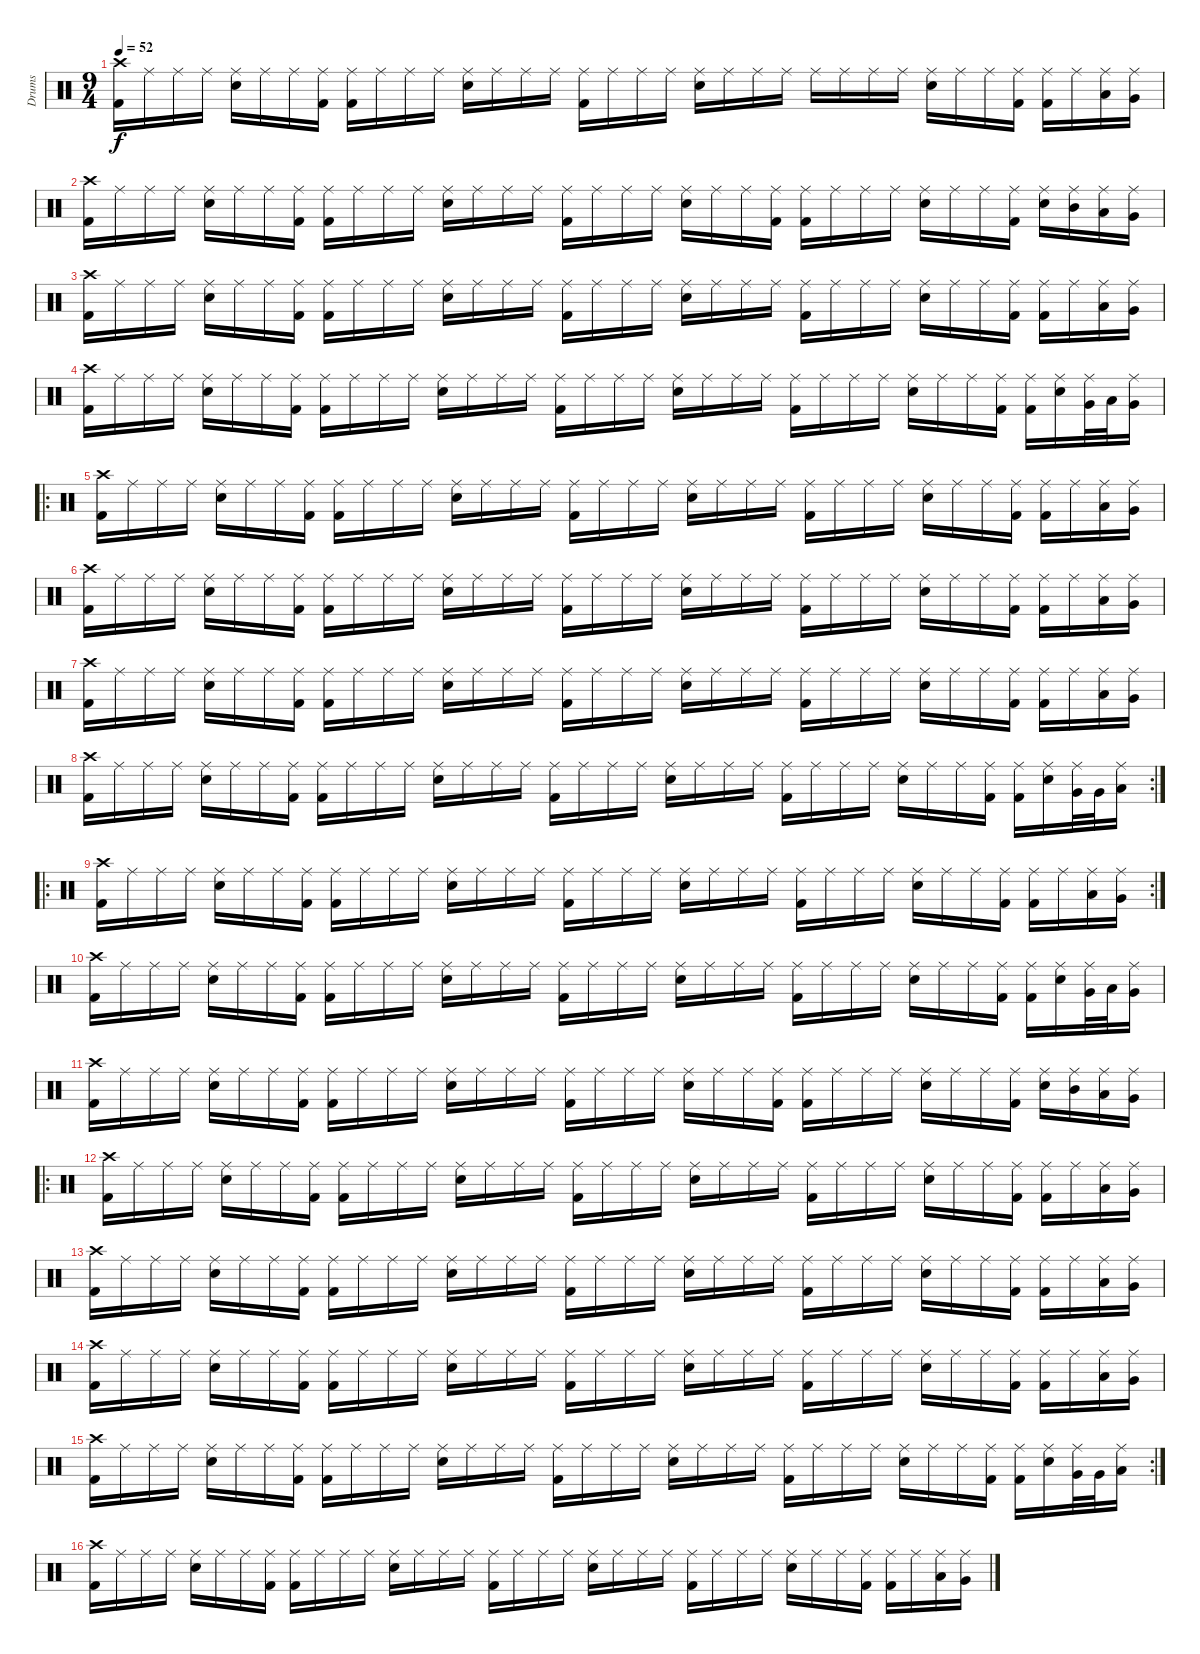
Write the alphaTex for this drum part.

\track ("Drums" "Drums") {instrument percussion}
\staff {score}
\articulation defaults
\ts (9 4)
\tempo 52
\clef neutral
\ks c
("Crash high (hit)" "Kick (hit) 2").16{dy f} "Ride (middle)".16 "Ride (middle)".16 "Ride (middle)".16 ("Ride (middle)" "Snare (hit) 2").16 "Ride (middle)".16 "Ride (middle)".16 ("Ride (middle)" "Kick (hit) 2").16 ("Ride (middle)" "Kick (hit) 2").16 "Ride (middle)".16 "Ride (middle)".16 "Ride (middle)".16 ("Ride (middle)" "Snare (hit) 2").16 "Ride (middle)".16 "Ride (middle)".16 "Ride (middle)".16 ("Ride (middle)" "Kick (hit) 2").16 "Ride (middle)".16 "Ride (middle)".16 "Ride (middle)".16 ("Ride (middle)" "Snare (hit) 2").16 "Ride (middle)".16 "Ride (middle)".16 "Ride (middle)".16 "Ride (middle)".16 "Ride (middle)".16 "Ride (middle)".16 "Ride (middle)".16 ("Ride (middle)" "Snare (hit) 2").16 "Ride (middle)".16 "Ride (middle)".16 ("Ride (middle)" "Kick (hit) 2").16 ("Ride (middle)" "Kick (hit) 2").16 "Ride (middle)".16 ("Ride (middle)" "Low Floor Tom (hit)").16 ("Ride (middle)" "Very Low Tom (hit)").16 |
("Crash high (hit)" "Kick (hit) 2").16 "Ride (middle)".16 "Ride (middle)".16 "Ride (middle)".16 ("Ride (middle)" "Snare (hit) 2").16 "Ride (middle)".16 "Ride (middle)".16 ("Ride (middle)" "Kick (hit) 2").16 ("Ride (middle)" "Kick (hit) 2").16 "Ride (middle)".16 "Ride (middle)".16 "Ride (middle)".16 ("Ride (middle)" "Snare (hit) 2").16 "Ride (middle)".16 "Ride (middle)".16 "Ride (middle)".16 ("Ride (middle)" "Kick (hit) 2").16 "Ride (middle)".16 "Ride (middle)".16 "Ride (middle)".16 ("Ride (middle)" "Snare (hit) 2").16 "Ride (middle)".16 "Ride (middle)".16 ("Ride (middle)" "Kick (hit) 2").16 ("Ride (middle)" "Kick (hit) 2").16 "Ride (middle)".16 "Ride (middle)".16 "Ride (middle)".16 ("Ride (middle)" "Snare (hit) 2").16 "Ride (middle)".16 "Ride (middle)".16 ("Ride (middle)" "Kick (hit) 2").16 ("Ride (middle)" "Snare (hit) 2").16 ("Ride (middle)" "Mid Tom (hit)").16 ("Ride (middle)" "Low Floor Tom (hit)").16 ("Ride (middle)" "Very Low Tom (hit)").16 |
("Crash high (hit)" "Kick (hit) 2").16 "Ride (middle)".16 "Ride (middle)".16 "Ride (middle)".16 ("Ride (middle)" "Snare (hit) 2").16 "Ride (middle)".16 "Ride (middle)".16 ("Ride (middle)" "Kick (hit) 2").16 ("Ride (middle)" "Kick (hit) 2").16 "Ride (middle)".16 "Ride (middle)".16 "Ride (middle)".16 ("Ride (middle)" "Snare (hit) 2").16 "Ride (middle)".16 "Ride (middle)".16 "Ride (middle)".16 ("Ride (middle)" "Kick (hit) 2").16 "Ride (middle)".16 "Ride (middle)".16 "Ride (middle)".16 ("Ride (middle)" "Snare (hit) 2").16 "Ride (middle)".16 "Ride (middle)".16 "Ride (middle)".16 ("Ride (middle)" "Kick (hit) 2").16 "Ride (middle)".16 "Ride (middle)".16 "Ride (middle)".16 ("Ride (middle)" "Snare (hit) 2").16 "Ride (middle)".16 "Ride (middle)".16 ("Ride (middle)" "Kick (hit) 2").16 ("Ride (middle)" "Kick (hit) 2").16 "Ride (middle)".16 ("Ride (middle)" "Low Floor Tom (hit)").16 ("Ride (middle)" "Very Low Tom (hit)").16 |
("Crash high (hit)" "Kick (hit) 2").16 "Ride (middle)".16 "Ride (middle)".16 "Ride (middle)".16 ("Ride (middle)" "Snare (hit) 2").16 "Ride (middle)".16 "Ride (middle)".16 ("Ride (middle)" "Kick (hit) 2").16 ("Ride (middle)" "Kick (hit) 2").16 "Ride (middle)".16 "Ride (middle)".16 "Ride (middle)".16 ("Ride (middle)" "Snare (hit) 2").16 "Ride (middle)".16 "Ride (middle)".16 "Ride (middle)".16 ("Ride (middle)" "Kick (hit) 2").16 "Ride (middle)".16 "Ride (middle)".16 "Ride (middle)".16 ("Ride (middle)" "Snare (hit) 2").16 "Ride (middle)".16 "Ride (middle)".16 "Ride (middle)".16 ("Ride (middle)" "Kick (hit) 2").16 "Ride (middle)".16 "Ride (middle)".16 "Ride (middle)".16 ("Ride (middle)" "Snare (hit) 2").16 "Ride (middle)".16 "Ride (middle)".16 ("Ride (middle)" "Kick (hit) 2").16 ("Ride (middle)" "Kick (hit) 2").16 ("Ride (middle)" "Snare (hit) 2").16 ("Ride (middle)" "Very Low Tom (hit)").32 "Low Tom (hit)".32 ("Ride (middle)" "Very Low Tom (hit)").16 |
\ro
("Crash high (hit)" "Kick (hit) 2").16 "Ride (middle)".16 "Ride (middle)".16 "Ride (middle)".16 ("Ride (middle)" "Snare (hit) 2").16 "Ride (middle)".16 "Ride (middle)".16 ("Ride (middle)" "Kick (hit) 2").16 ("Ride (middle)" "Kick (hit) 2").16 "Ride (middle)".16 "Ride (middle)".16 "Ride (middle)".16 ("Ride (middle)" "Snare (hit) 2").16 "Ride (middle)".16 "Ride (middle)".16 "Ride (middle)".16 ("Ride (middle)" "Kick (hit) 2").16 "Ride (middle)".16 "Ride (middle)".16 "Ride (middle)".16 ("Ride (middle)" "Snare (hit) 2").16 "Ride (middle)".16 "Ride (middle)".16 "Ride (middle)".16 ("Ride (middle)" "Kick (hit) 2").16 "Ride (middle)".16 "Ride (middle)".16 "Ride (middle)".16 ("Ride (middle)" "Snare (hit) 2").16 "Ride (middle)".16 "Ride (middle)".16 ("Ride (middle)" "Kick (hit) 2").16 ("Ride (middle)" "Kick (hit) 2").16 "Ride (middle)".16 ("Ride (middle)" "Low Floor Tom (hit)").16 ("Ride (middle)" "Very Low Tom (hit)").16 |
("Crash high (hit)" "Kick (hit) 2").16 "Ride (middle)".16 "Ride (middle)".16 "Ride (middle)".16 ("Ride (middle)" "Snare (hit) 2").16 "Ride (middle)".16 "Ride (middle)".16 ("Ride (middle)" "Kick (hit) 2").16 ("Ride (middle)" "Kick (hit) 2").16 "Ride (middle)".16 "Ride (middle)".16 "Ride (middle)".16 ("Ride (middle)" "Snare (hit) 2").16 "Ride (middle)".16 "Ride (middle)".16 "Ride (middle)".16 ("Ride (middle)" "Kick (hit) 2").16 "Ride (middle)".16 "Ride (middle)".16 "Ride (middle)".16 ("Ride (middle)" "Snare (hit) 2").16 "Ride (middle)".16 "Ride (middle)".16 "Ride (middle)".16 ("Ride (middle)" "Kick (hit) 2").16 "Ride (middle)".16 "Ride (middle)".16 "Ride (middle)".16 ("Ride (middle)" "Snare (hit) 2").16 "Ride (middle)".16 "Ride (middle)".16 ("Ride (middle)" "Kick (hit) 2").16 ("Ride (middle)" "Kick (hit) 2").16 "Ride (middle)".16 ("Ride (middle)" "Low Floor Tom (hit)").16 ("Ride (middle)" "Very Low Tom (hit)").16 |
("Crash high (hit)" "Kick (hit) 2").16 "Ride (middle)".16 "Ride (middle)".16 "Ride (middle)".16 ("Ride (middle)" "Snare (hit) 2").16 "Ride (middle)".16 "Ride (middle)".16 ("Ride (middle)" "Kick (hit) 2").16 ("Ride (middle)" "Kick (hit) 2").16 "Ride (middle)".16 "Ride (middle)".16 "Ride (middle)".16 ("Ride (middle)" "Snare (hit) 2").16 "Ride (middle)".16 "Ride (middle)".16 "Ride (middle)".16 ("Ride (middle)" "Kick (hit) 2").16 "Ride (middle)".16 "Ride (middle)".16 "Ride (middle)".16 ("Ride (middle)" "Snare (hit) 2").16 "Ride (middle)".16 "Ride (middle)".16 "Ride (middle)".16 ("Ride (middle)" "Kick (hit) 2").16 "Ride (middle)".16 "Ride (middle)".16 "Ride (middle)".16 ("Ride (middle)" "Snare (hit) 2").16 "Ride (middle)".16 "Ride (middle)".16 ("Ride (middle)" "Kick (hit) 2").16 ("Ride (middle)" "Kick (hit) 2").16 "Ride (middle)".16 ("Ride (middle)" "Low Floor Tom (hit)").16 ("Ride (middle)" "Very Low Tom (hit)").16 |
\rc 2
("Crash high (hit)" "Kick (hit) 2").16 "Ride (middle)".16 "Ride (middle)".16 "Ride (middle)".16 ("Ride (middle)" "Snare (hit) 2").16 "Ride (middle)".16 "Ride (middle)".16 ("Ride (middle)" "Kick (hit) 2").16 ("Ride (middle)" "Kick (hit) 2").16 "Ride (middle)".16 "Ride (middle)".16 "Ride (middle)".16 ("Ride (middle)" "Snare (hit) 2").16 "Ride (middle)".16 "Ride (middle)".16 "Ride (middle)".16 ("Ride (middle)" "Kick (hit) 2").16 "Ride (middle)".16 "Ride (middle)".16 "Ride (middle)".16 ("Ride (middle)" "Snare (hit) 2").16 "Ride (middle)".16 "Ride (middle)".16 "Ride (middle)".16 ("Ride (middle)" "Kick (hit) 2").16 "Ride (middle)".16 "Ride (middle)".16 "Ride (middle)".16 ("Ride (middle)" "Snare (hit) 2").16 "Ride (middle)".16 "Ride (middle)".16 ("Ride (middle)" "Kick (hit) 2").16 ("Ride (middle)" "Kick (hit) 2").16 ("Ride (middle)" "Snare (hit) 2").16 ("Ride (middle)" "Very Low Tom (hit)").32 "Very Low Tom (hit)".32 ("Ride (middle)" "Low Tom (hit)").16 |
\ro
\rc 2
("Crash high (hit)" "Kick (hit) 2").16 "Ride (middle)".16 "Ride (middle)".16 "Ride (middle)".16 ("Ride (middle)" "Snare (hit) 2").16 "Ride (middle)".16 "Ride (middle)".16 ("Ride (middle)" "Kick (hit) 2").16 ("Ride (middle)" "Kick (hit) 2").16 "Ride (middle)".16 "Ride (middle)".16 "Ride (middle)".16 ("Ride (middle)" "Snare (hit) 2").16 "Ride (middle)".16 "Ride (middle)".16 "Ride (middle)".16 ("Ride (middle)" "Kick (hit) 2").16 "Ride (middle)".16 "Ride (middle)".16 "Ride (middle)".16 ("Ride (middle)" "Snare (hit) 2").16 "Ride (middle)".16 "Ride (middle)".16 "Ride (middle)".16 ("Ride (middle)" "Kick (hit) 2").16 "Ride (middle)".16 "Ride (middle)".16 "Ride (middle)".16 ("Ride (middle)" "Snare (hit) 2").16 "Ride (middle)".16 "Ride (middle)".16 ("Ride (middle)" "Kick (hit) 2").16 ("Ride (middle)" "Kick (hit) 2").16 "Ride (middle)".16 ("Ride (middle)" "Low Floor Tom (hit)").16 ("Ride (middle)" "Very Low Tom (hit)").16 |
("Crash high (hit)" "Kick (hit) 2").16 "Ride (middle)".16 "Ride (middle)".16 "Ride (middle)".16 ("Ride (middle)" "Snare (hit) 2").16 "Ride (middle)".16 "Ride (middle)".16 ("Ride (middle)" "Kick (hit) 2").16 ("Ride (middle)" "Kick (hit) 2").16 "Ride (middle)".16 "Ride (middle)".16 "Ride (middle)".16 ("Ride (middle)" "Snare (hit) 2").16 "Ride (middle)".16 "Ride (middle)".16 "Ride (middle)".16 ("Ride (middle)" "Kick (hit) 2").16 "Ride (middle)".16 "Ride (middle)".16 "Ride (middle)".16 ("Ride (middle)" "Snare (hit) 2").16 "Ride (middle)".16 "Ride (middle)".16 "Ride (middle)".16 ("Ride (middle)" "Kick (hit) 2").16 "Ride (middle)".16 "Ride (middle)".16 "Ride (middle)".16 ("Ride (middle)" "Snare (hit) 2").16 "Ride (middle)".16 "Ride (middle)".16 ("Ride (middle)" "Kick (hit) 2").16 ("Ride (middle)" "Kick (hit) 2").16 ("Ride (middle)" "Snare (hit) 2").16 ("Ride (middle)" "Very Low Tom (hit)").32 "Low Tom (hit)".32 ("Ride (middle)" "Very Low Tom (hit)").16 |
("Crash high (hit)" "Kick (hit) 2").16 "Ride (middle)".16 "Ride (middle)".16 "Ride (middle)".16 ("Ride (middle)" "Snare (hit) 2").16 "Ride (middle)".16 "Ride (middle)".16 ("Ride (middle)" "Kick (hit) 2").16 ("Ride (middle)" "Kick (hit) 2").16 "Ride (middle)".16 "Ride (middle)".16 "Ride (middle)".16 ("Ride (middle)" "Snare (hit) 2").16 "Ride (middle)".16 "Ride (middle)".16 "Ride (middle)".16 ("Ride (middle)" "Kick (hit) 2").16 "Ride (middle)".16 "Ride (middle)".16 "Ride (middle)".16 ("Ride (middle)" "Snare (hit) 2").16 "Ride (middle)".16 "Ride (middle)".16 ("Ride (middle)" "Kick (hit) 2").16 ("Ride (middle)" "Kick (hit) 2").16 "Ride (middle)".16 "Ride (middle)".16 "Ride (middle)".16 ("Ride (middle)" "Snare (hit) 2").16 "Ride (middle)".16 "Ride (middle)".16 ("Ride (middle)" "Kick (hit) 2").16 ("Ride (middle)" "Snare (hit) 2").16 ("Ride (middle)" "Mid Tom (hit)").16 ("Ride (middle)" "Low Floor Tom (hit)").16 ("Ride (middle)" "Very Low Tom (hit)").16 |
\ro
("Crash high (hit)" "Kick (hit) 2").16 "Ride (middle)".16 "Ride (middle)".16 "Ride (middle)".16 ("Ride (middle)" "Snare (hit) 2").16 "Ride (middle)".16 "Ride (middle)".16 ("Ride (middle)" "Kick (hit) 2").16 ("Ride (middle)" "Kick (hit) 2").16 "Ride (middle)".16 "Ride (middle)".16 "Ride (middle)".16 ("Ride (middle)" "Snare (hit) 2").16 "Ride (middle)".16 "Ride (middle)".16 "Ride (middle)".16 ("Ride (middle)" "Kick (hit) 2").16 "Ride (middle)".16 "Ride (middle)".16 "Ride (middle)".16 ("Ride (middle)" "Snare (hit) 2").16 "Ride (middle)".16 "Ride (middle)".16 "Ride (middle)".16 ("Ride (middle)" "Kick (hit) 2").16 "Ride (middle)".16 "Ride (middle)".16 "Ride (middle)".16 ("Ride (middle)" "Snare (hit) 2").16 "Ride (middle)".16 "Ride (middle)".16 ("Ride (middle)" "Kick (hit) 2").16 ("Ride (middle)" "Kick (hit) 2").16 "Ride (middle)".16 ("Ride (middle)" "Low Floor Tom (hit)").16 ("Ride (middle)" "Very Low Tom (hit)").16 |
("Crash high (hit)" "Kick (hit) 2").16 "Ride (middle)".16 "Ride (middle)".16 "Ride (middle)".16 ("Ride (middle)" "Snare (hit) 2").16 "Ride (middle)".16 "Ride (middle)".16 ("Ride (middle)" "Kick (hit) 2").16 ("Ride (middle)" "Kick (hit) 2").16 "Ride (middle)".16 "Ride (middle)".16 "Ride (middle)".16 ("Ride (middle)" "Snare (hit) 2").16 "Ride (middle)".16 "Ride (middle)".16 "Ride (middle)".16 ("Ride (middle)" "Kick (hit) 2").16 "Ride (middle)".16 "Ride (middle)".16 "Ride (middle)".16 ("Ride (middle)" "Snare (hit) 2").16 "Ride (middle)".16 "Ride (middle)".16 "Ride (middle)".16 ("Ride (middle)" "Kick (hit) 2").16 "Ride (middle)".16 "Ride (middle)".16 "Ride (middle)".16 ("Ride (middle)" "Snare (hit) 2").16 "Ride (middle)".16 "Ride (middle)".16 ("Ride (middle)" "Kick (hit) 2").16 ("Ride (middle)" "Kick (hit) 2").16 "Ride (middle)".16 ("Ride (middle)" "Low Floor Tom (hit)").16 ("Ride (middle)" "Very Low Tom (hit)").16 |
("Crash high (hit)" "Kick (hit) 2").16 "Ride (middle)".16 "Ride (middle)".16 "Ride (middle)".16 ("Ride (middle)" "Snare (hit) 2").16 "Ride (middle)".16 "Ride (middle)".16 ("Ride (middle)" "Kick (hit) 2").16 ("Ride (middle)" "Kick (hit) 2").16 "Ride (middle)".16 "Ride (middle)".16 "Ride (middle)".16 ("Ride (middle)" "Snare (hit) 2").16 "Ride (middle)".16 "Ride (middle)".16 "Ride (middle)".16 ("Ride (middle)" "Kick (hit) 2").16 "Ride (middle)".16 "Ride (middle)".16 "Ride (middle)".16 ("Ride (middle)" "Snare (hit) 2").16 "Ride (middle)".16 "Ride (middle)".16 "Ride (middle)".16 ("Ride (middle)" "Kick (hit) 2").16 "Ride (middle)".16 "Ride (middle)".16 "Ride (middle)".16 ("Ride (middle)" "Snare (hit) 2").16 "Ride (middle)".16 "Ride (middle)".16 ("Ride (middle)" "Kick (hit) 2").16 ("Ride (middle)" "Kick (hit) 2").16 "Ride (middle)".16 ("Ride (middle)" "Low Floor Tom (hit)").16 ("Ride (middle)" "Very Low Tom (hit)").16 |
\rc 2
("Crash high (hit)" "Kick (hit) 2").16 "Ride (middle)".16 "Ride (middle)".16 "Ride (middle)".16 ("Ride (middle)" "Snare (hit) 2").16 "Ride (middle)".16 "Ride (middle)".16 ("Ride (middle)" "Kick (hit) 2").16 ("Ride (middle)" "Kick (hit) 2").16 "Ride (middle)".16 "Ride (middle)".16 "Ride (middle)".16 ("Ride (middle)" "Snare (hit) 2").16 "Ride (middle)".16 "Ride (middle)".16 "Ride (middle)".16 ("Ride (middle)" "Kick (hit) 2").16 "Ride (middle)".16 "Ride (middle)".16 "Ride (middle)".16 ("Ride (middle)" "Snare (hit) 2").16 "Ride (middle)".16 "Ride (middle)".16 "Ride (middle)".16 ("Ride (middle)" "Kick (hit) 2").16 "Ride (middle)".16 "Ride (middle)".16 "Ride (middle)".16 ("Ride (middle)" "Snare (hit) 2").16 "Ride (middle)".16 "Ride (middle)".16 ("Ride (middle)" "Kick (hit) 2").16 ("Ride (middle)" "Kick (hit) 2").16 ("Ride (middle)" "Snare (hit) 2").16 ("Ride (middle)" "Very Low Tom (hit)").32 "Very Low Tom (hit)".32 ("Ride (middle)" "Low Tom (hit)").16 |
("Crash high (hit)" "Kick (hit) 2").16 "Ride (middle)".16 "Ride (middle)".16 "Ride (middle)".16 ("Ride (middle)" "Snare (hit) 2").16 "Ride (middle)".16 "Ride (middle)".16 ("Ride (middle)" "Kick (hit) 2").16 ("Ride (middle)" "Kick (hit) 2").16 "Ride (middle)".16 "Ride (middle)".16 "Ride (middle)".16 ("Ride (middle)" "Snare (hit) 2").16 "Ride (middle)".16 "Ride (middle)".16 "Ride (middle)".16 ("Ride (middle)" "Kick (hit) 2").16 "Ride (middle)".16 "Ride (middle)".16 "Ride (middle)".16 ("Ride (middle)" "Snare (hit) 2").16 "Ride (middle)".16 "Ride (middle)".16 "Ride (middle)".16 ("Ride (middle)" "Kick (hit) 2").16 "Ride (middle)".16 "Ride (middle)".16 "Ride (middle)".16 ("Ride (middle)" "Snare (hit) 2").16 "Ride (middle)".16 "Ride (middle)".16 ("Ride (middle)" "Kick (hit) 2").16 ("Ride (middle)" "Kick (hit) 2").16 "Ride (middle)".16 ("Ride (middle)" "Low Floor Tom (hit)").16 ("Ride (middle)" "Very Low Tom (hit)").16
